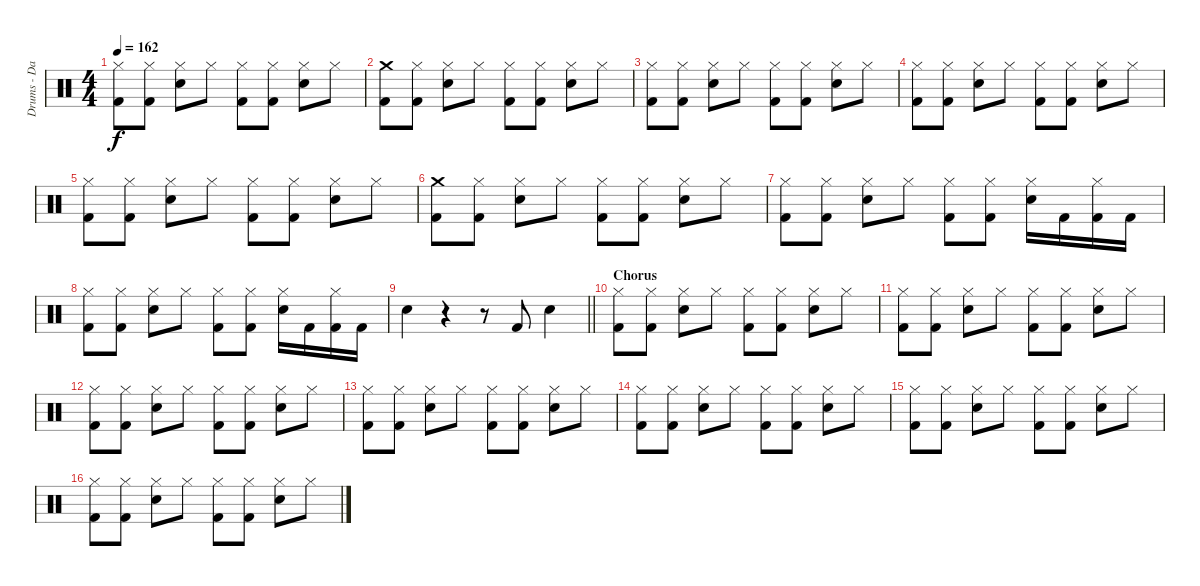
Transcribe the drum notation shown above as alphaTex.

\track ("Drums - David Holland" "Drums - Da") {instrument percussion}
\staff {score}
\articulation defaults
\ts (4 4)
\tempo 162
\clef neutral
\ks c
("Hi-Hat (closed)" "Kick (hit) 2").8{dy f} ("Hi-Hat (closed)" "Kick (hit) 2").8 ("Hi-Hat (closed)" "Snare (hit) 2").8 "Hi-Hat (closed)".8 ("Hi-Hat (closed)" "Kick (hit) 2").8 ("Hi-Hat (closed)" "Kick (hit) 2").8 ("Hi-Hat (closed)" "Snare (hit) 2").8 "Hi-Hat (closed)".8 |
("Crash medium (hit)" "Kick (hit) 2").8 ("Hi-Hat (closed)" "Kick (hit) 2").8 ("Hi-Hat (closed)" "Snare (hit) 2").8 "Hi-Hat (closed)".8 ("Hi-Hat (closed)" "Kick (hit) 2").8 ("Hi-Hat (closed)" "Kick (hit) 2").8 ("Hi-Hat (closed)" "Snare (hit) 2").8 "Hi-Hat (closed)".8 |
("Hi-Hat (closed)" "Kick (hit) 2").8 ("Hi-Hat (closed)" "Kick (hit) 2").8 ("Hi-Hat (closed)" "Snare (hit) 2").8 "Hi-Hat (closed)".8 ("Hi-Hat (closed)" "Kick (hit) 2").8 ("Hi-Hat (closed)" "Kick (hit) 2").8 ("Hi-Hat (closed)" "Snare (hit) 2").8 "Hi-Hat (closed)".8 |
("Hi-Hat (closed)" "Kick (hit) 2").8 ("Hi-Hat (closed)" "Kick (hit) 2").8 ("Hi-Hat (closed)" "Snare (hit) 2").8 "Hi-Hat (closed)".8 ("Hi-Hat (closed)" "Kick (hit) 2").8 ("Hi-Hat (closed)" "Kick (hit) 2").8 ("Hi-Hat (closed)" "Snare (hit) 2").8 "Hi-Hat (closed)".8 |
("Hi-Hat (closed)" "Kick (hit) 2").8 ("Hi-Hat (closed)" "Kick (hit) 2").8 ("Hi-Hat (closed)" "Snare (hit) 2").8 "Hi-Hat (closed)".8 ("Hi-Hat (closed)" "Kick (hit) 2").8 ("Hi-Hat (closed)" "Kick (hit) 2").8 ("Hi-Hat (closed)" "Snare (hit) 2").8 "Hi-Hat (closed)".8 |
("Crash medium (hit)" "Kick (hit) 2").8 ("Hi-Hat (closed)" "Kick (hit) 2").8 ("Hi-Hat (closed)" "Snare (hit) 2").8 "Hi-Hat (closed)".8 ("Hi-Hat (closed)" "Kick (hit) 2").8 ("Hi-Hat (closed)" "Kick (hit) 2").8 ("Hi-Hat (closed)" "Snare (hit) 2").8 "Hi-Hat (closed)".8 |
("Hi-Hat (closed)" "Kick (hit) 2").8 ("Hi-Hat (closed)" "Kick (hit) 2").8 ("Hi-Hat (closed)" "Snare (hit) 2").8 "Hi-Hat (closed)".8 ("Hi-Hat (closed)" "Kick (hit) 2").8 ("Hi-Hat (closed)" "Kick (hit) 2").8 ("Hi-Hat (closed)" "Snare (hit) 2").16 "Kick (hit) 2".16 ("Hi-Hat (closed)" "Kick (hit) 2").16 "Kick (hit) 2".16 |
("Hi-Hat (closed)" "Kick (hit) 2").8 ("Hi-Hat (closed)" "Kick (hit) 2").8 ("Hi-Hat (closed)" "Snare (hit) 2").8 "Hi-Hat (closed)".8 ("Hi-Hat (closed)" "Kick (hit) 2").8 ("Hi-Hat (closed)" "Kick (hit) 2").8 ("Hi-Hat (closed)" "Snare (hit) 2").16 "Kick (hit) 2".16 ("Hi-Hat (closed)" "Kick (hit) 2").16 "Kick (hit) 2".16 |
\barLineRight lightlight "Snare (hit) 2".4
r.4 r.8 "Kick (hit) 2".8 "Snare (hit) 2".4 |
\section ("" "Chorus")
("Hi-Hat (closed)" "Kick (hit) 2").8 ("Hi-Hat (closed)" "Kick (hit) 2").8 ("Hi-Hat (closed)" "Snare (hit) 2").8 "Hi-Hat (closed)".8 ("Hi-Hat (closed)" "Kick (hit) 2").8 ("Hi-Hat (closed)" "Kick (hit) 2").8 ("Hi-Hat (closed)" "Snare (hit) 2").8 "Hi-Hat (closed)".8 |
("Hi-Hat (closed)" "Kick (hit) 2").8 ("Hi-Hat (closed)" "Kick (hit) 2").8 ("Hi-Hat (closed)" "Snare (hit) 2").8 "Hi-Hat (closed)".8 ("Hi-Hat (closed)" "Kick (hit) 2").8 ("Hi-Hat (closed)" "Kick (hit) 2").8 ("Hi-Hat (closed)" "Snare (hit) 2").8 "Hi-Hat (closed)".8 |
("Hi-Hat (closed)" "Kick (hit) 2").8 ("Hi-Hat (closed)" "Kick (hit) 2").8 ("Hi-Hat (closed)" "Snare (hit) 2").8 "Hi-Hat (closed)".8 ("Hi-Hat (closed)" "Kick (hit) 2").8 ("Hi-Hat (closed)" "Kick (hit) 2").8 ("Hi-Hat (closed)" "Snare (hit) 2").8 "Hi-Hat (closed)".8 |
("Hi-Hat (closed)" "Kick (hit) 2").8 ("Hi-Hat (closed)" "Kick (hit) 2").8 ("Hi-Hat (closed)" "Snare (hit) 2").8 "Hi-Hat (closed)".8 ("Hi-Hat (closed)" "Kick (hit) 2").8 ("Hi-Hat (closed)" "Kick (hit) 2").8 ("Hi-Hat (closed)" "Snare (hit) 2").8 "Hi-Hat (closed)".8 |
("Hi-Hat (closed)" "Kick (hit) 2").8 ("Hi-Hat (closed)" "Kick (hit) 2").8 ("Hi-Hat (closed)" "Snare (hit) 2").8 "Hi-Hat (closed)".8 ("Hi-Hat (closed)" "Kick (hit) 2").8 ("Hi-Hat (closed)" "Kick (hit) 2").8 ("Hi-Hat (closed)" "Snare (hit) 2").8 "Hi-Hat (closed)".8 |
("Hi-Hat (closed)" "Kick (hit) 2").8 ("Hi-Hat (closed)" "Kick (hit) 2").8 ("Hi-Hat (closed)" "Snare (hit) 2").8 "Hi-Hat (closed)".8 ("Hi-Hat (closed)" "Kick (hit) 2").8 ("Hi-Hat (closed)" "Kick (hit) 2").8 ("Hi-Hat (closed)" "Snare (hit) 2").8 "Hi-Hat (closed)".8 |
("Hi-Hat (closed)" "Kick (hit) 2").8 ("Hi-Hat (closed)" "Kick (hit) 2").8 ("Hi-Hat (closed)" "Snare (hit) 2").8 "Hi-Hat (closed)".8 ("Hi-Hat (closed)" "Kick (hit) 2").8 ("Hi-Hat (closed)" "Kick (hit) 2").8 ("Hi-Hat (closed)" "Snare (hit) 2").8 "Hi-Hat (closed)".8
